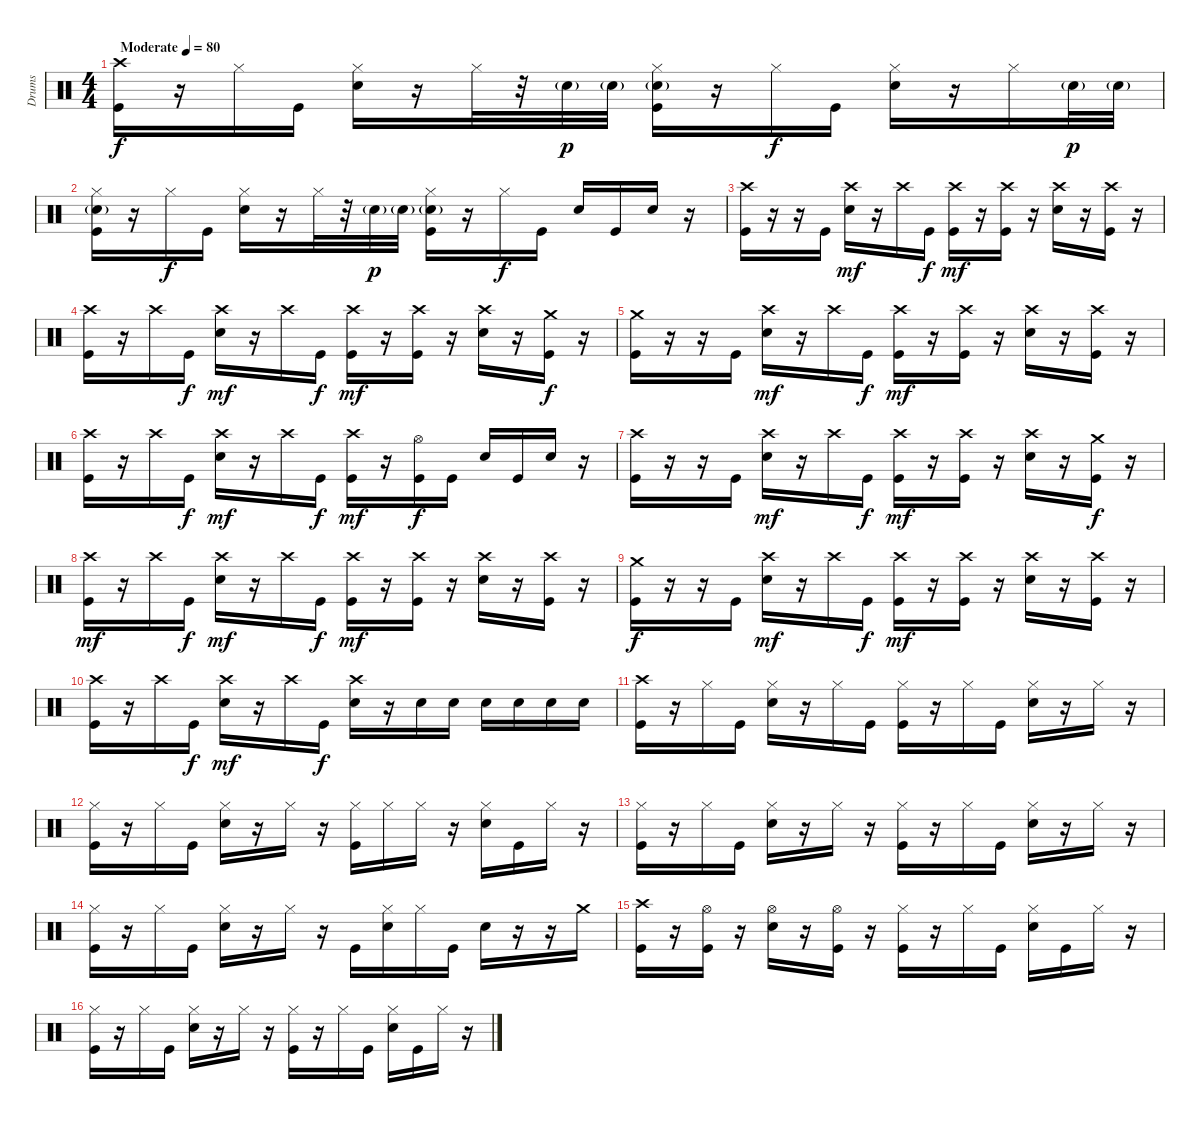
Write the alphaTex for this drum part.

\track ("Drums" "Drums") {instrument percussion}
\staff {score}
\articulation defaults
\ts (4 4)
\tempo (80 "Moderate")
\clef neutral
\ks c
("Crash high (hit)" "Kick (hit)").16{dy f volume 5} r.16 "Hi-Hat (closed)".16 "Kick (hit)".16 ("Hi-Hat (closed)" "Snare (hit) 2").16 r.16 "Hi-Hat (closed)".32 r.32 "Snare (hit) 2"{g}.32{dy p} "Snare (hit) 2"{g}.32 ("Hi-Hat (closed)" "Kick (hit)" "Snare (hit) 2"{g}).16 r.16 "Hi-Hat (closed)".16{dy f} "Kick (hit)".16 ("Hi-Hat (closed)" "Snare (hit) 2").16 r.16 "Hi-Hat (closed)".16 "Snare (hit) 2"{g}.32{dy p} "Snare (hit) 2"{g}.32 |
("Hi-Hat (closed)" "Kick (hit)" "Snare (hit) 2"{g}).16 r.16 "Hi-Hat (closed)".16{dy f} "Kick (hit)".16 ("Hi-Hat (closed)" "Snare (hit) 2").16 r.16 "Hi-Hat (closed)".32 r.32 "Snare (hit) 2"{g}.32{dy p} "Snare (hit) 2"{g}.32 ("Hi-Hat (closed)" "Kick (hit)" "Snare (hit) 2"{g}).16 r.16 "Hi-Hat (closed)".16{dy f} "Kick (hit)".16{volume 13} "Snare (hit) 2".16 "Kick (hit)".16 "Snare (hit) 2".16 r.16 |
("Crash high (hit)" "Kick (hit)").16 r.16 r.16 "Kick (hit)".16 ("Crash high (hit)" "Snare (hit) 2").16{dy mf} r.16 "Crash high (hit)".16 "Kick (hit)".16{dy f} ("Crash high (hit)" "Kick (hit)").16{dy mf} r.16 ("Crash high (hit)" "Kick (hit)").16 r.16 ("Crash high (hit)" "Snare (hit) 2").16 r.16 ("Crash high (hit)" "Kick (hit)").16 r.16 |
("Crash high (hit)" "Kick (hit)").16 r.16 "Crash high (hit)".16 "Kick (hit)".16{dy f} ("Crash high (hit)" "Snare (hit) 2").16{dy mf} r.16 "Crash high (hit)".16 "Kick (hit)".16{dy f} ("Crash high (hit)" "Kick (hit)").16{dy mf} r.16 ("Crash high (hit)" "Kick (hit)").16 r.16 ("Crash high (hit)" "Snare (hit) 2").16 r.16 ("Crash medium (hit)" "Kick (hit)").16{dy f} r.16 |
("Crash medium (hit)" "Kick (hit)").16 r.16 r.16 "Kick (hit)".16 ("Crash high (hit)" "Snare (hit) 2").16{dy mf} r.16 "Crash high (hit)".16 "Kick (hit)".16{dy f} ("Crash high (hit)" "Kick (hit)").16{dy mf} r.16 ("Crash high (hit)" "Kick (hit)").16 r.16 ("Crash high (hit)" "Snare (hit) 2").16 r.16 ("Crash high (hit)" "Kick (hit)").16 r.16 |
("Crash high (hit)" "Kick (hit)").16 r.16 "Crash high (hit)".16 "Kick (hit)".16{dy f} ("Crash high (hit)" "Snare (hit) 2").16{dy mf} r.16 "Crash high (hit)".16 "Kick (hit)".16{dy f} ("Crash high (hit)" "Kick (hit)").16{dy mf} r.16 ("Hi-Hat (open)" "Kick (hit)").16{dy f} "Kick (hit)".16 "Snare (hit) 2".16 "Kick (hit)".16 "Snare (hit) 2".16 r.16 |
("Crash high (hit)" "Kick (hit)").16 r.16 r.16 "Kick (hit)".16 ("Crash high (hit)" "Snare (hit) 2").16{dy mf} r.16 "Crash high (hit)".16 "Kick (hit)".16{dy f} ("Crash high (hit)" "Kick (hit)").16{dy mf} r.16 ("Crash high (hit)" "Kick (hit)").16 r.16 ("Crash high (hit)" "Snare (hit) 2").16 r.16 ("Crash medium (hit)" "Kick (hit)").16{dy f} r.16 |
("Crash high (hit)" "Kick (hit)").16{dy mf} r.16 "Crash high (hit)".16 "Kick (hit)".16{dy f} ("Crash high (hit)" "Snare (hit) 2").16{dy mf} r.16 "Crash high (hit)".16 "Kick (hit)".16{dy f} ("Crash high (hit)" "Kick (hit)").16{dy mf} r.16 ("Crash high (hit)" "Kick (hit)").16 r.16 ("Crash high (hit)" "Snare (hit) 2").16 r.16 ("Crash high (hit)" "Kick (hit)").16 r.16 |
("Crash medium (hit)" "Kick (hit)").16{dy f} r.16 r.16 "Kick (hit)".16 ("Crash high (hit)" "Snare (hit) 2").16{dy mf} r.16 "Crash high (hit)".16 "Kick (hit)".16{dy f} ("Crash high (hit)" "Kick (hit)").16{dy mf} r.16 ("Crash high (hit)" "Kick (hit)").16 r.16 ("Crash high (hit)" "Snare (hit) 2").16 r.16 ("Crash high (hit)" "Kick (hit)").16 r.16 |
("Crash high (hit)" "Kick (hit)").16 r.16 "Crash high (hit)".16 "Kick (hit)".16{dy f} ("Crash high (hit)" "Snare (hit) 2").16{dy mf} r.16 "Crash high (hit)".16 "Kick (hit)".16{dy f} ("Crash high (hit)" "Snare (hit) 2").16 r.16 "Snare (hit) 2".16 "Snare (hit) 2".16 "Snare (hit) 2".16 "Snare (hit) 2".16 "Snare (hit) 2".16 "Snare (hit) 2".16 |
("Crash high (hit)" "Kick (hit)").16 r.16 "Hi-Hat (closed)".16 "Kick (hit)".16 ("Hi-Hat (closed)" "Snare (hit) 2").16 r.16 "Hi-Hat (closed)".16 "Kick (hit)".16 ("Hi-Hat (closed)" "Kick (hit)").16 r.16 "Hi-Hat (closed)".16 "Kick (hit)".16 ("Hi-Hat (closed)" "Snare (hit) 2").16 r.16 "Hi-Hat (closed)".16 r.16 |
("Hi-Hat (closed)" "Kick (hit)").16 r.16 "Hi-Hat (closed)".16 "Kick (hit)".16 ("Hi-Hat (closed)" "Snare (hit) 2").16 r.16 "Hi-Hat (closed)".16 r.16 ("Hi-Hat (closed)" "Kick (hit)").16 "Hi-Hat (closed)".16 "Hi-Hat (closed)".16 r.16 ("Hi-Hat (closed)" "Snare (hit) 2").16 "Kick (hit)".16 "Hi-Hat (closed)".16 r.16 |
("Hi-Hat (closed)" "Kick (hit)").16 r.16 "Hi-Hat (closed)".16 "Kick (hit)".16 ("Hi-Hat (closed)" "Snare (hit) 2").16 r.16 "Hi-Hat (closed)".16 r.16 ("Hi-Hat (closed)" "Kick (hit)").16 r.16 "Hi-Hat (closed)".16 "Kick (hit)".16 ("Hi-Hat (closed)" "Snare (hit) 2").16 r.16 "Hi-Hat (closed)".16 r.16 |
("Hi-Hat (closed)" "Kick (hit)").16 r.16 "Hi-Hat (closed)".16 "Kick (hit)".16 ("Hi-Hat (closed)" "Snare (hit) 2").16 r.16 "Hi-Hat (closed)".16 r.16 "Kick (hit)".16 ("Hi-Hat (closed)" "Snare (hit) 2").16 "Hi-Hat (closed)".16 "Kick (hit)".16 "Snare (hit) 2".16 r.16 r.16 "Crash medium (hit)".16 |
("Crash high (hit)" "Kick (hit)").16 r.16 ("Hi-Hat (open)" "Kick (hit)").16 r.16 ("Hi-Hat (open)" "Snare (hit) 2").16 r.16 ("Hi-Hat (open)" "Kick (hit)").16 r.16 ("Hi-Hat (closed)" "Kick (hit)").16 r.16 "Hi-Hat (closed)".16 "Kick (hit)".16 ("Hi-Hat (closed)" "Snare (hit) 2").16 "Kick (hit)".16 "Hi-Hat (closed)".16 r.16 |
("Hi-Hat (closed)" "Kick (hit)").16 r.16 "Hi-Hat (closed)".16 "Kick (hit)".16 ("Hi-Hat (closed)" "Snare (hit) 2").16 r.16 "Hi-Hat (closed)".16 r.16 ("Hi-Hat (closed)" "Kick (hit)").16 r.16 "Hi-Hat (closed)".16 "Kick (hit)".16 ("Hi-Hat (closed)" "Snare (hit) 2").16 "Kick (hit)".16 "Hi-Hat (closed)".16 r.16
